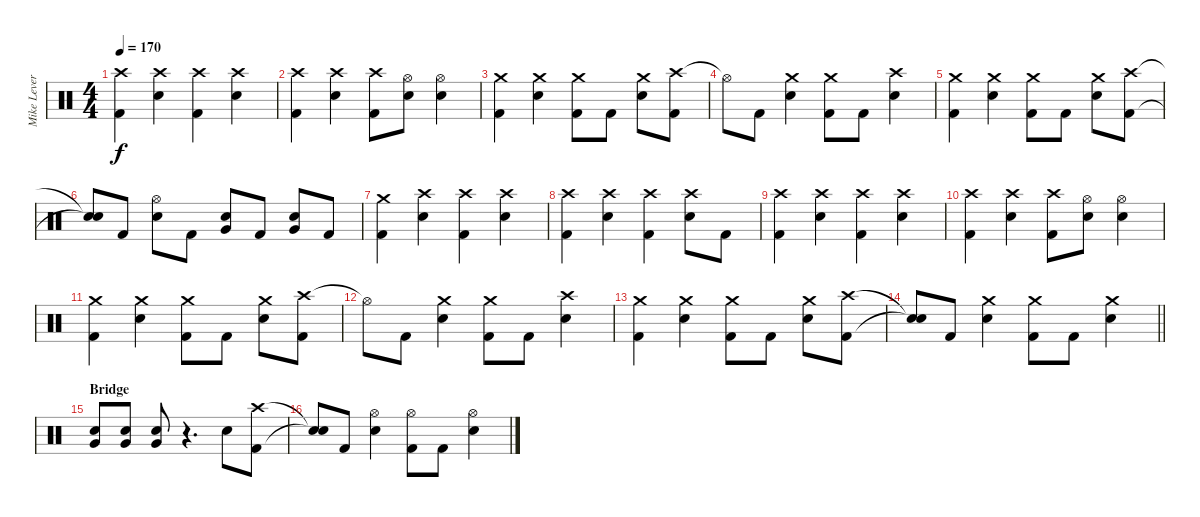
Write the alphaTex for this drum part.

\track ("Mike Leverence - Drums" "Mike Lever") {instrument percussion}
\staff {score}
\articulation defaults
\ts (4 4)
\tempo 170
\clef neutral
\ks c
("Crash high (hit)" "Kick (hit) 2").4{dy f} ("Crash high (hit)" "Electric Snare (hit)").4 ("Crash high (hit)" "Kick (hit) 2").4 ("Crash high (hit)" "Electric Snare (hit)").4 |
("Crash high (hit)" "Kick (hit) 2").4 ("Crash high (hit)" "Electric Snare (hit)").4 ("Crash high (hit)" "Kick (hit) 2").8 ("Hi-Hat (open)" "Electric Snare (hit)").8 ("Hi-Hat (open)" "Electric Snare (hit)").4 |
("Crash medium (hit)" "Kick (hit) 2").4 ("Crash medium (hit)" "Electric Snare (hit)").4 ("Crash medium (hit)" "Kick (hit) 2").8 "Kick (hit) 2".8 ("Crash medium (hit)" "Electric Snare (hit)").8 ("Crash high (hit)" "Kick (hit) 2").8 |
"Hi-Hat (open)"{t}.8 "Kick (hit) 2".8 ("Crash medium (hit)" "Electric Snare (hit)").4 ("Crash medium (hit)" "Kick (hit) 2").8 "Kick (hit) 2".8 ("Crash high (hit)" "Electric Snare (hit)").4 |
("Crash medium (hit)" "Kick (hit) 2").4 ("Crash medium (hit)" "Electric Snare (hit)").4 ("Crash medium (hit)" "Kick (hit) 2").8 "Kick (hit) 2".8 ("Crash medium (hit)" "Electric Snare (hit)").8 ("Crash high (hit)" "Kick (hit) 2").8 |
("Snare (hit)"{t} "Snare (hit)"{t}).8 "Kick (hit) 2".8 ("Hi-Hat (open)" "Electric Snare (hit)").8 "Kick (hit) 2".8 ("Very Low Tom (hit)" "Electric Snare (hit)").8 "Kick (hit) 2".8 ("Very Low Tom (hit)" "Electric Snare (hit)").8 "Kick (hit) 2".8 |
("Crash medium (hit)" "Kick (hit) 2").4 ("Crash high (hit)" "Electric Snare (hit)").4 ("Crash high (hit)" "Kick (hit) 2").4 ("Crash high (hit)" "Electric Snare (hit)").4 |
("Crash high (hit)" "Kick (hit) 2").4 ("Crash high (hit)" "Electric Snare (hit)").4 ("Crash high (hit)" "Kick (hit) 2").4 ("Crash high (hit)" "Electric Snare (hit)").8 "Kick (hit) 2".8 |
("Crash high (hit)" "Kick (hit) 2").4 ("Crash high (hit)" "Electric Snare (hit)").4 ("Crash high (hit)" "Kick (hit) 2").4 ("Crash high (hit)" "Electric Snare (hit)").4 |
("Crash high (hit)" "Kick (hit) 2").4 ("Crash high (hit)" "Electric Snare (hit)").4 ("Crash high (hit)" "Kick (hit) 2").8 ("Hi-Hat (open)" "Electric Snare (hit)").8 ("Hi-Hat (open)" "Electric Snare (hit)").4 |
("Crash medium (hit)" "Kick (hit) 2").4 ("Crash medium (hit)" "Electric Snare (hit)").4 ("Crash medium (hit)" "Kick (hit) 2").8 "Kick (hit) 2".8 ("Crash medium (hit)" "Electric Snare (hit)").8 ("Crash high (hit)" "Kick (hit) 2").8 |
"Hi-Hat (open)"{t}.8 "Kick (hit) 2".8 ("Crash medium (hit)" "Electric Snare (hit)").4 ("Crash medium (hit)" "Kick (hit) 2").8 "Kick (hit) 2".8 ("Crash high (hit)" "Electric Snare (hit)").4 |
("Crash medium (hit)" "Kick (hit) 2").4 ("Crash medium (hit)" "Electric Snare (hit)").4 ("Crash medium (hit)" "Kick (hit) 2").8 "Kick (hit) 2".8 ("Crash medium (hit)" "Electric Snare (hit)").8 ("Crash high (hit)" "Kick (hit) 2").8 |
\barLineRight lightlight
("Snare (hit)"{t} "Snare (hit)"{t}).8 "Kick (hit) 2".8 ("Crash medium (hit)" "Electric Snare (hit)").4 ("Crash medium (hit)" "Kick (hit) 2").8 "Kick (hit) 2".8 ("Crash medium (hit)" "Electric Snare (hit)").4 |
\section ("" "Bridge")
("Electric Snare (hit)" "Very Low Tom (hit)").8 ("Electric Snare (hit)" "Very Low Tom (hit)").8 ("Electric Snare (hit)" "Very Low Tom (hit)").8 r.4{d} "Electric Snare (hit)".8 ("Crash high (hit)" "Kick (hit) 2").8 |
("Snare (hit)"{t} "Snare (hit)"{t}).8 "Kick (hit) 2".8 ("Hi-Hat (open)" "Electric Snare (hit)").4 ("Hi-Hat (open)" "Kick (hit) 2").8 "Kick (hit) 2".8 ("Hi-Hat (open)" "Electric Snare (hit)").4
